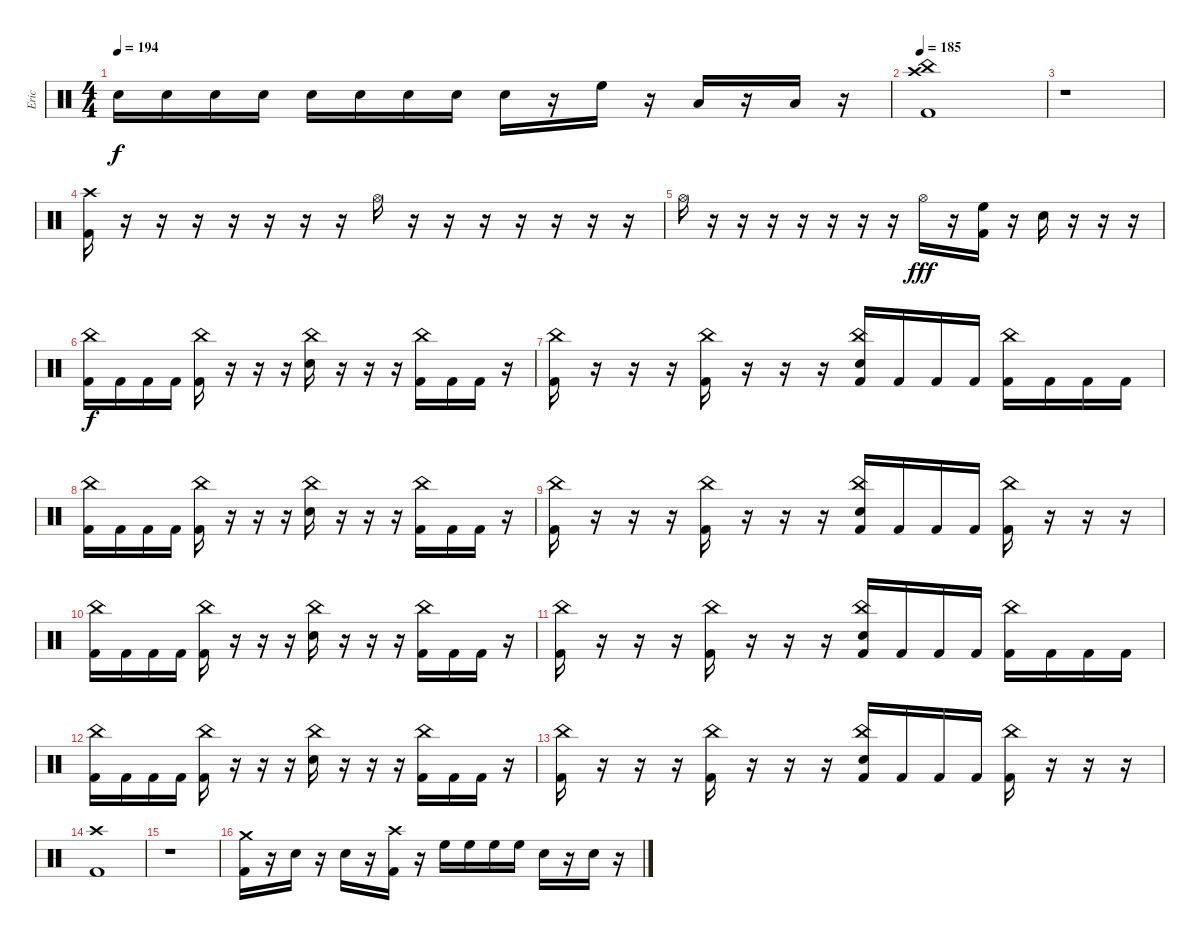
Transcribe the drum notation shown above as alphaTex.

\track ("Eric" "Eric") {instrument percussion}
\staff {score}
\articulation defaults
\ts (4 4)
\tempo 194
\clef neutral
\ks c "Electric Snare (hit)".16{dy f} "Electric Snare (hit)".16 "Electric Snare (hit)".16 "Electric Snare (hit)".16 "Electric Snare (hit)".16 "Electric Snare (hit)".16 "Electric Snare (hit)".16 "Electric Snare (hit)".16 "Electric Snare (hit)".16
r.16 "High Floor Tom (hit)".16 r.16 "Low Tom (hit)".16 r.16 "Low Tom (hit)".16 r.16 |
\tempo 185
("Crash high (hit)" "China (hit)" "Kick (hit) 2").1 |
r.1 |
("Crash high (hit)" "Kick (hit) 2").16 r.16 r.16 r.16 r.16 r.16 r.16 r.16 "Hi-Hat (open)".16 r.16 r.16 r.16 r.16 r.16 r.16 r.16 |
"Hi-Hat (open)".16 r.16 r.16 r.16 r.16 r.16 r.16 r.16 "Hi-Hat (open)".16{dy fff} r.16 ("High Floor Tom (hit)" "Kick (hit) 2").16 r.16 "Electric Snare (hit)".16 r.16 r.16 r.16 |
("China (hit)" "Kick (hit) 2").16{dy f} "Kick (hit) 2".16 "Kick (hit) 2".16 "Kick (hit) 2".16 ("China (hit)" "Kick (hit) 2").16 r.16 r.16 r.16 ("China (hit)" "Electric Snare (hit)").16 r.16 r.16 r.16 ("China (hit)" "Kick (hit) 2").16 "Kick (hit) 2".16 "Kick (hit) 2".16 r.16 |
("China (hit)" "Kick (hit) 2").16 r.16 r.16 r.16 ("China (hit)" "Kick (hit) 2").16 r.16 r.16 r.16 ("China (hit)" "Electric Snare (hit)" "Kick (hit) 2").16 "Kick (hit) 2".16 "Kick (hit) 2".16 "Kick (hit) 2".16 ("China (hit)" "Kick (hit) 2").16 "Kick (hit) 2".16 "Kick (hit) 2".16 "Kick (hit) 2".16 |
("China (hit)" "Kick (hit) 2").16 "Kick (hit) 2".16 "Kick (hit) 2".16 "Kick (hit) 2".16 ("China (hit)" "Kick (hit) 2").16 r.16 r.16 r.16 ("China (hit)" "Electric Snare (hit)").16 r.16 r.16 r.16 ("China (hit)" "Kick (hit) 2").16 "Kick (hit) 2".16 "Kick (hit) 2".16 r.16 |
("China (hit)" "Kick (hit) 2").16 r.16 r.16 r.16 ("China (hit)" "Kick (hit) 2").16 r.16 r.16 r.16 ("China (hit)" "Electric Snare (hit)" "Kick (hit) 2").16 "Kick (hit) 2".16 "Kick (hit) 2".16 "Kick (hit) 2".16 ("China (hit)" "Kick (hit) 2").16 r.16 r.16 r.16 |
("China (hit)" "Kick (hit) 2").16 "Kick (hit) 2".16 "Kick (hit) 2".16 "Kick (hit) 2".16 ("China (hit)" "Kick (hit) 2").16 r.16 r.16 r.16 ("China (hit)" "Electric Snare (hit)").16 r.16 r.16 r.16 ("China (hit)" "Kick (hit) 2").16 "Kick (hit) 2".16 "Kick (hit) 2".16 r.16 |
("China (hit)" "Kick (hit) 2").16 r.16 r.16 r.16 ("China (hit)" "Kick (hit) 2").16 r.16 r.16 r.16 ("China (hit)" "Electric Snare (hit)" "Kick (hit) 2").16 "Kick (hit) 2".16 "Kick (hit) 2".16 "Kick (hit) 2".16 ("China (hit)" "Kick (hit) 2").16 "Kick (hit) 2".16 "Kick (hit) 2".16 "Kick (hit) 2".16 |
("China (hit)" "Kick (hit) 2").16 "Kick (hit) 2".16 "Kick (hit) 2".16 "Kick (hit) 2".16 ("China (hit)" "Kick (hit) 2").16 r.16 r.16 r.16 ("China (hit)" "Electric Snare (hit)").16 r.16 r.16 r.16 ("China (hit)" "Kick (hit) 2").16 "Kick (hit) 2".16 "Kick (hit) 2".16 r.16 |
("China (hit)" "Kick (hit) 2").16 r.16 r.16 r.16 ("China (hit)" "Kick (hit) 2").16 r.16 r.16 r.16 ("China (hit)" "Electric Snare (hit)" "Kick (hit) 2").16 "Kick (hit) 2".16 "Kick (hit) 2".16 "Kick (hit) 2".16 ("China (hit)" "Kick (hit) 2").16 r.16 r.16 r.16 |
("Crash high (hit)" "Kick (hit) 2").1 |
r.1 |
("Crash medium (hit)" "Kick (hit) 2").16 r.16 "Electric Snare (hit)".16 r.16 "Electric Snare (hit)".16 r.16 ("Crash high (hit)" "Kick (hit) 2").16 r.16 "High Floor Tom (hit)".16 "High Floor Tom (hit)".16 "High Floor Tom (hit)".16 "High Floor Tom (hit)".16 "Electric Snare (hit)".16 r.16 "Electric Snare (hit)".16 r.16
